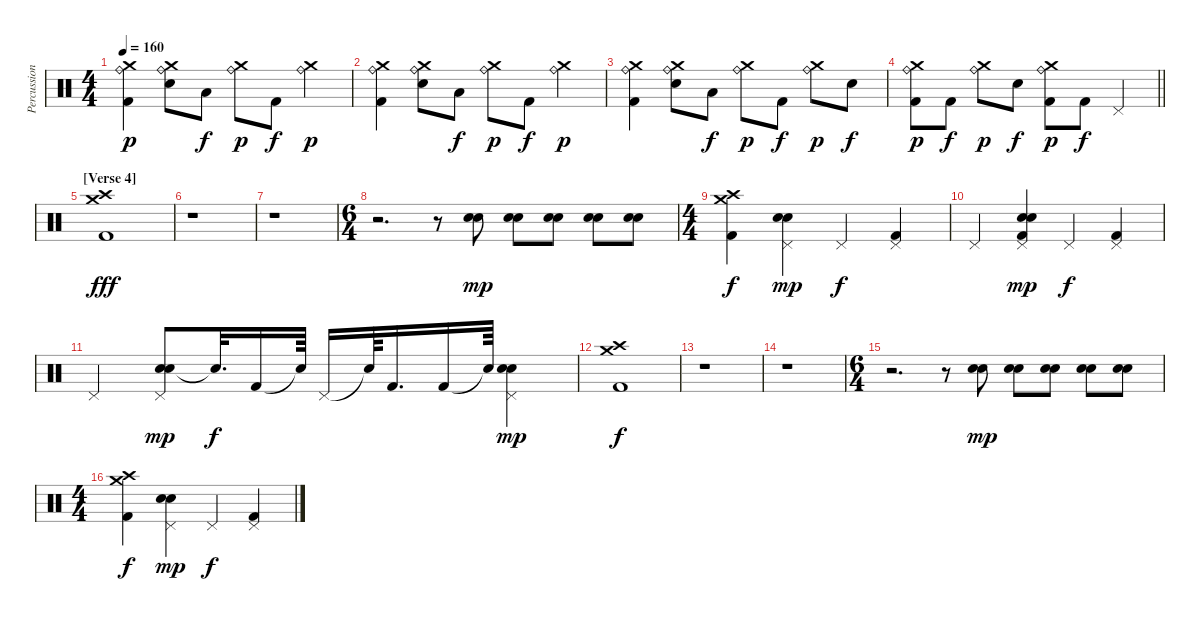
\track ("Percussion" "Percussion") {instrument percussion}
\staff {score}
\articulation defaults
\ts (4 4)
\tempo 160
\clef neutral
\ks c
("Ride (bell)" "Kick (hit) 2" "Crash medium (hit)").4{dy p} ("Ride (bell)" "Snare (hit) 2" "Crash medium (hit)").8 "Low Floor Tom (hit)".8{dy f} ("Ride (bell)" "Crash medium (hit)").8{dy p} "Kick (hit) 2".8{dy f} ("Ride (bell)" "Crash medium (hit)").4{dy p} |
("Kick (hit) 2" "Ride (bell)" "Crash medium (hit)").4 ("Snare (hit) 2" "Ride (bell)" "Crash medium (hit)").8 "Low Floor Tom (hit)".8{dy f} ("Ride (bell)" "Crash medium (hit)").8{dy p} "Kick (hit) 2".8{dy f} ("Ride (bell)" "Crash medium (hit)").4{dy p} |
("Kick (hit) 2" "Ride (bell)" "Crash medium (hit)").4 ("Snare (hit) 2" "Ride (bell)" "Crash medium (hit)").8 "Low Floor Tom (hit)".8{dy f} ("Ride (bell)" "Crash medium (hit)").8{dy p} "Kick (hit) 2".8{dy f} ("Ride (bell)" "Crash medium (hit)").8{dy p} "Snare (hit) 2".8{dy f} |
\barLineRight lightlight
("Ride (bell)" "Kick (hit) 2" "Crash medium (hit)").8{dy p} "Kick (hit) 2".8{dy f} ("Ride (bell)" "Crash medium (hit)").8{dy p} "Snare (hit) 2".8{dy f} ("Ride (bell)" "Kick (hit) 2" "Crash medium (hit)").8{dy p} "Kick (hit) 2".8{dy f} "Pedal Hi-Hat (hit)".4 |
\section ("" "[Verse 4]")
("Kick (hit) 2" "Crash high (hit)" "Crash medium (hit)").1{dy fff} |
r.1 |
r.1 |
\ts (6 4)
r.2{d} r.8 ("Snare (hit) 2" "Electric Snare (hit)").8{dy mp} ("Snare (hit) 2" "Electric Snare (hit)").8 ("Snare (hit) 2" "Electric Snare (hit)").8 ("Snare (hit) 2" "Electric Snare (hit)").8 ("Snare (hit) 2" "Electric Snare (hit)").8 |
\ts (4 4)
("Crash medium (hit)" "Kick (hit) 2" "Crash high (hit)").4{dy f} ("Snare (hit) 2" "Electric Snare (hit)" "Pedal Hi-Hat (hit)").4{dy mp} "Pedal Hi-Hat (hit)".4{dy f} ("Pedal Hi-Hat (hit)" "Kick (hit) 2").4 |
"Pedal Hi-Hat (hit)".4 ("Snare (hit) 2" "Pedal Hi-Hat (hit)" "Kick (hit) 2" "Electric Snare (hit)").4{dy mp} "Pedal Hi-Hat (hit)".4{dy f} ("Kick (hit) 2" "Pedal Hi-Hat (hit)").4 |
"Pedal Hi-Hat (hit)".4 ("Snare (hit) 2" "Electric Snare (hit)" "Pedal Hi-Hat (hit)").8{dy mp} "Snare (hit)"{t}.32{d dy f} "Kick (hit) 2".16 "Snare (hit)"{t}.64 "Pedal Hi-Hat (hit)".16 "Snare (hit)"{t}.64 "Kick (hit) 2".16{d} "Kick (hit) 2".16 "Snare (hit)"{t}.64 ("Snare (hit) 2" "Electric Snare (hit)" "Pedal Hi-Hat (hit)").4{dy mp} |
("Kick (hit) 2" "Crash high (hit)" "Crash medium (hit)").1{dy f} |
r.1 |
r.1 |
\ts (6 4)
r.2{d} r.8 ("Snare (hit) 2" "Electric Snare (hit)").8{dy mp} ("Snare (hit) 2" "Electric Snare (hit)").8 ("Snare (hit) 2" "Electric Snare (hit)").8 ("Snare (hit) 2" "Electric Snare (hit)").8 ("Snare (hit) 2" "Electric Snare (hit)").8 |
\ts (4 4)
("Crash medium (hit)" "Kick (hit) 2" "Crash high (hit)").4{dy f} ("Snare (hit) 2" "Electric Snare (hit)" "Pedal Hi-Hat (hit)").4{dy mp} "Pedal Hi-Hat (hit)".4{dy f} ("Pedal Hi-Hat (hit)" "Kick (hit) 2").4
